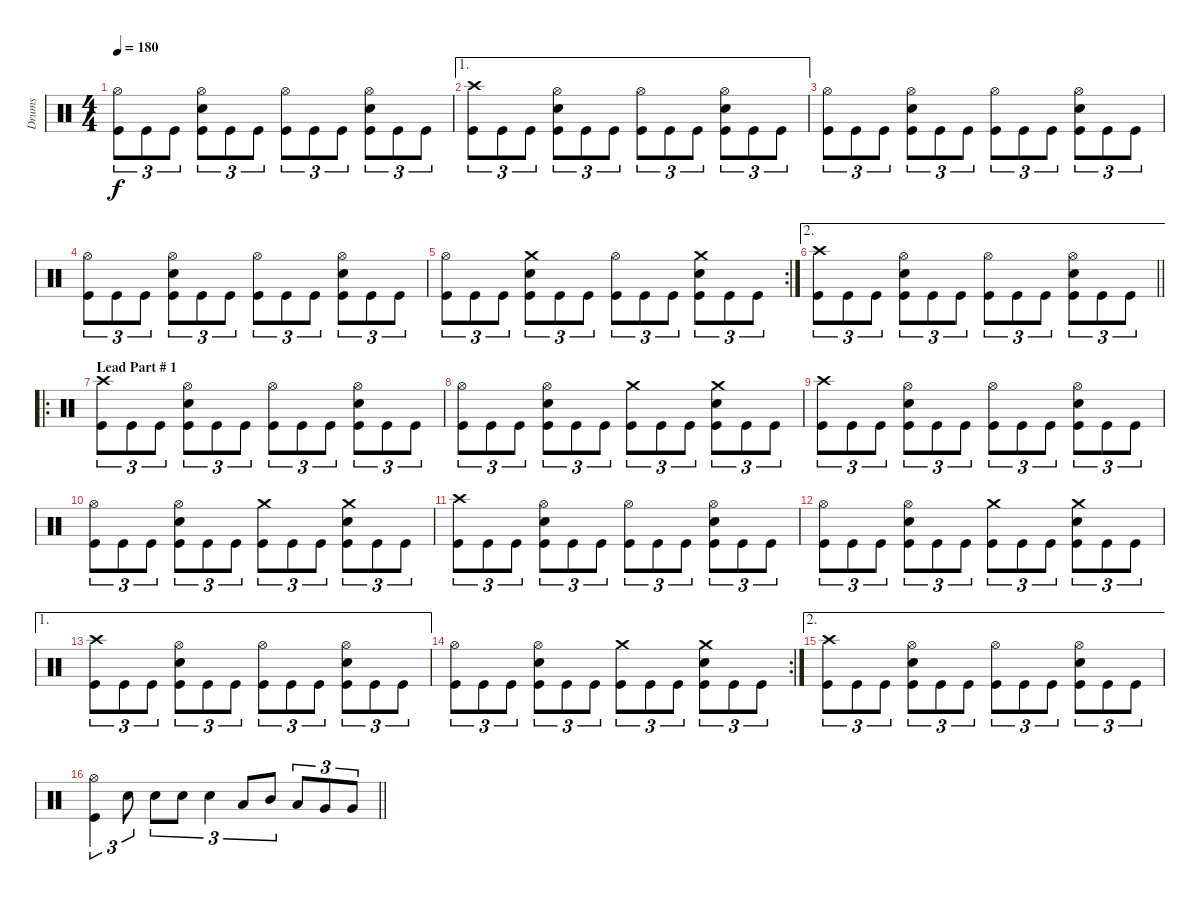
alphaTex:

\track ("Drums" "Drums") {instrument percussion}
\staff {score}
\articulation defaults
\ts (4 4)
\tempo 180
\clef neutral
\ks c
("Hi-Hat (open)" "Kick (hit)").8{tu (3 2) dy f} "Kick (hit)".8{tu (3 2)} "Kick (hit)".8{tu (3 2)} ("Hi-Hat (open)" "Snare (hit) 2" "Kick (hit)").8{tu (3 2)} "Kick (hit)".8{tu (3 2)} "Kick (hit)".8{tu (3 2)} ("Hi-Hat (open)" "Kick (hit)").8{tu (3 2)} "Kick (hit)".8{tu (3 2)} "Kick (hit)".8{tu (3 2)} ("Hi-Hat (open)" "Snare (hit) 2" "Kick (hit)").8{tu (3 2)} "Kick (hit)".8{tu (3 2)} "Kick (hit)".8{tu (3 2)} |
\ae 1
("Crash high (hit)" "Kick (hit)").8{tu (3 2)} "Kick (hit)".8{tu (3 2)} "Kick (hit)".8{tu (3 2)} ("Hi-Hat (open)" "Snare (hit) 2" "Kick (hit)").8{tu (3 2)} "Kick (hit)".8{tu (3 2)} "Kick (hit)".8{tu (3 2)} ("Hi-Hat (open)" "Kick (hit)").8{tu (3 2)} "Kick (hit)".8{tu (3 2)} "Kick (hit)".8{tu (3 2)} ("Hi-Hat (open)" "Snare (hit) 2" "Kick (hit)").8{tu (3 2)} "Kick (hit)".8{tu (3 2)} "Kick (hit)".8{tu (3 2)} |
("Hi-Hat (open)" "Kick (hit)").8{tu (3 2)} "Kick (hit)".8{tu (3 2)} "Kick (hit)".8{tu (3 2)} ("Hi-Hat (open)" "Snare (hit) 2" "Kick (hit)").8{tu (3 2)} "Kick (hit)".8{tu (3 2)} "Kick (hit)".8{tu (3 2)} ("Hi-Hat (open)" "Kick (hit)").8{tu (3 2)} "Kick (hit)".8{tu (3 2)} "Kick (hit)".8{tu (3 2)} ("Hi-Hat (open)" "Snare (hit) 2" "Kick (hit)").8{tu (3 2)} "Kick (hit)".8{tu (3 2)} "Kick (hit)".8{tu (3 2)} |
("Hi-Hat (open)" "Kick (hit)").8{tu (3 2)} "Kick (hit)".8{tu (3 2)} "Kick (hit)".8{tu (3 2)} ("Hi-Hat (open)" "Snare (hit) 2" "Kick (hit)").8{tu (3 2)} "Kick (hit)".8{tu (3 2)} "Kick (hit)".8{tu (3 2)} ("Hi-Hat (open)" "Kick (hit)").8{tu (3 2)} "Kick (hit)".8{tu (3 2)} "Kick (hit)".8{tu (3 2)} ("Hi-Hat (open)" "Snare (hit) 2" "Kick (hit)").8{tu (3 2)} "Kick (hit)".8{tu (3 2)} "Kick (hit)".8{tu (3 2)} |
\rc 2
("Hi-Hat (open)" "Kick (hit)").8{tu (3 2)} "Kick (hit)".8{tu (3 2)} "Kick (hit)".8{tu (3 2)} ("Crash medium (hit)" "Snare (hit) 2" "Kick (hit)").8{tu (3 2)} "Kick (hit)".8{tu (3 2)} "Kick (hit)".8{tu (3 2)} ("Hi-Hat (open)" "Kick (hit)").8{tu (3 2)} "Kick (hit)".8{tu (3 2)} "Kick (hit)".8{tu (3 2)} ("Crash medium (hit)" "Snare (hit) 2" "Kick (hit)").8{tu (3 2)} "Kick (hit)".8{tu (3 2)} "Kick (hit)".8{tu (3 2)} |
\ae 2
\barLineRight lightlight
("Crash high (hit)" "Kick (hit)").8{tu (3 2)} "Kick (hit)".8{tu (3 2)} "Kick (hit)".8{tu (3 2)} ("Hi-Hat (open)" "Snare (hit) 2" "Kick (hit)").8{tu (3 2)} "Kick (hit)".8{tu (3 2)} "Kick (hit)".8{tu (3 2)} ("Hi-Hat (open)" "Kick (hit)").8{tu (3 2)} "Kick (hit)".8{tu (3 2)} "Kick (hit)".8{tu (3 2)} ("Hi-Hat (open)" "Snare (hit) 2" "Kick (hit)").8{tu (3 2)} "Kick (hit)".8{tu (3 2)} "Kick (hit)".8{tu (3 2)} |
\ro
\section ("" "Lead Part # 1")
("Crash high (hit)" "Kick (hit)").8{tu (3 2)} "Kick (hit)".8{tu (3 2)} "Kick (hit)".8{tu (3 2)} ("Hi-Hat (open)" "Snare (hit) 2" "Kick (hit)").8{tu (3 2)} "Kick (hit)".8{tu (3 2)} "Kick (hit)".8{tu (3 2)} ("Hi-Hat (open)" "Kick (hit)").8{tu (3 2)} "Kick (hit)".8{tu (3 2)} "Kick (hit)".8{tu (3 2)} ("Hi-Hat (open)" "Snare (hit) 2" "Kick (hit)").8{tu (3 2)} "Kick (hit)".8{tu (3 2)} "Kick (hit)".8{tu (3 2)} |
("Hi-Hat (open)" "Kick (hit)").8{tu (3 2)} "Kick (hit)".8{tu (3 2)} "Kick (hit)".8{tu (3 2)} ("Hi-Hat (open)" "Snare (hit) 2" "Kick (hit)").8{tu (3 2)} "Kick (hit)".8{tu (3 2)} "Kick (hit)".8{tu (3 2)} ("Crash medium (hit)" "Kick (hit)").8{tu (3 2)} "Kick (hit)".8{tu (3 2)} "Kick (hit)".8{tu (3 2)} ("Crash medium (hit)" "Snare (hit) 2" "Kick (hit)").8{tu (3 2)} "Kick (hit)".8{tu (3 2)} "Kick (hit)".8{tu (3 2)} |
("Crash high (hit)" "Kick (hit)").8{tu (3 2)} "Kick (hit)".8{tu (3 2)} "Kick (hit)".8{tu (3 2)} ("Hi-Hat (open)" "Snare (hit) 2" "Kick (hit)").8{tu (3 2)} "Kick (hit)".8{tu (3 2)} "Kick (hit)".8{tu (3 2)} ("Hi-Hat (open)" "Kick (hit)").8{tu (3 2)} "Kick (hit)".8{tu (3 2)} "Kick (hit)".8{tu (3 2)} ("Hi-Hat (open)" "Snare (hit) 2" "Kick (hit)").8{tu (3 2)} "Kick (hit)".8{tu (3 2)} "Kick (hit)".8{tu (3 2)} |
("Hi-Hat (open)" "Kick (hit)").8{tu (3 2)} "Kick (hit)".8{tu (3 2)} "Kick (hit)".8{tu (3 2)} ("Hi-Hat (open)" "Snare (hit) 2" "Kick (hit)").8{tu (3 2)} "Kick (hit)".8{tu (3 2)} "Kick (hit)".8{tu (3 2)} ("Crash medium (hit)" "Kick (hit)").8{tu (3 2)} "Kick (hit)".8{tu (3 2)} "Kick (hit)".8{tu (3 2)} ("Crash medium (hit)" "Snare (hit) 2" "Kick (hit)").8{tu (3 2)} "Kick (hit)".8{tu (3 2)} "Kick (hit)".8{tu (3 2)} |
("Crash high (hit)" "Kick (hit)").8{tu (3 2)} "Kick (hit)".8{tu (3 2)} "Kick (hit)".8{tu (3 2)} ("Hi-Hat (open)" "Snare (hit) 2" "Kick (hit)").8{tu (3 2)} "Kick (hit)".8{tu (3 2)} "Kick (hit)".8{tu (3 2)} ("Hi-Hat (open)" "Kick (hit)").8{tu (3 2)} "Kick (hit)".8{tu (3 2)} "Kick (hit)".8{tu (3 2)} ("Hi-Hat (open)" "Snare (hit) 2" "Kick (hit)").8{tu (3 2)} "Kick (hit)".8{tu (3 2)} "Kick (hit)".8{tu (3 2)} |
("Hi-Hat (open)" "Kick (hit)").8{tu (3 2)} "Kick (hit)".8{tu (3 2)} "Kick (hit)".8{tu (3 2)} ("Hi-Hat (open)" "Snare (hit) 2" "Kick (hit)").8{tu (3 2)} "Kick (hit)".8{tu (3 2)} "Kick (hit)".8{tu (3 2)} ("Crash medium (hit)" "Kick (hit)").8{tu (3 2)} "Kick (hit)".8{tu (3 2)} "Kick (hit)".8{tu (3 2)} ("Crash medium (hit)" "Snare (hit) 2" "Kick (hit)").8{tu (3 2)} "Kick (hit)".8{tu (3 2)} "Kick (hit)".8{tu (3 2)} |
\ae 1
("Crash high (hit)" "Kick (hit)").8{tu (3 2)} "Kick (hit)".8{tu (3 2)} "Kick (hit)".8{tu (3 2)} ("Hi-Hat (open)" "Snare (hit) 2" "Kick (hit)").8{tu (3 2)} "Kick (hit)".8{tu (3 2)} "Kick (hit)".8{tu (3 2)} ("Hi-Hat (open)" "Kick (hit)").8{tu (3 2)} "Kick (hit)".8{tu (3 2)} "Kick (hit)".8{tu (3 2)} ("Hi-Hat (open)" "Snare (hit) 2" "Kick (hit)").8{tu (3 2)} "Kick (hit)".8{tu (3 2)} "Kick (hit)".8{tu (3 2)} |
\rc 2
("Hi-Hat (open)" "Kick (hit)").8{tu (3 2)} "Kick (hit)".8{tu (3 2)} "Kick (hit)".8{tu (3 2)} ("Hi-Hat (open)" "Snare (hit) 2" "Kick (hit)").8{tu (3 2)} "Kick (hit)".8{tu (3 2)} "Kick (hit)".8{tu (3 2)} ("Crash medium (hit)" "Kick (hit)").8{tu (3 2)} "Kick (hit)".8{tu (3 2)} "Kick (hit)".8{tu (3 2)} ("Crash medium (hit)" "Snare (hit) 2" "Kick (hit)").8{tu (3 2)} "Kick (hit)".8{tu (3 2)} "Kick (hit)".8{tu (3 2)} |
\ae 2
("Crash high (hit)" "Kick (hit)").8{tu (3 2)} "Kick (hit)".8{tu (3 2)} "Kick (hit)".8{tu (3 2)} ("Hi-Hat (open)" "Snare (hit) 2" "Kick (hit)").8{tu (3 2)} "Kick (hit)".8{tu (3 2)} "Kick (hit)".8{tu (3 2)} ("Hi-Hat (open)" "Kick (hit)").8{tu (3 2)} "Kick (hit)".8{tu (3 2)} "Kick (hit)".8{tu (3 2)} ("Hi-Hat (open)" "Snare (hit) 2" "Kick (hit)").8{tu (3 2)} "Kick (hit)".8{tu (3 2)} "Kick (hit)".8{tu (3 2)} |
\barLineRight lightlight
("Hi-Hat (open)" "Kick (hit)").4{tu (3 2)} "Snare (hit) 2".8{tu (3 2)} "Snare (hit) 2".8{tu (3 2)} "Snare (hit) 2".8{tu (3 2)} "Snare (hit) 2".4{tu (3 2)} "Low Tom (hit)".8{tu (3 2)} "Mid Tom (hit)".8{tu (3 2)} "Low Tom (hit)".8{tu (3 2)} "Very Low Tom (hit)".8{tu (3 2)} "Very Low Tom (hit)".8{tu (3 2)}
